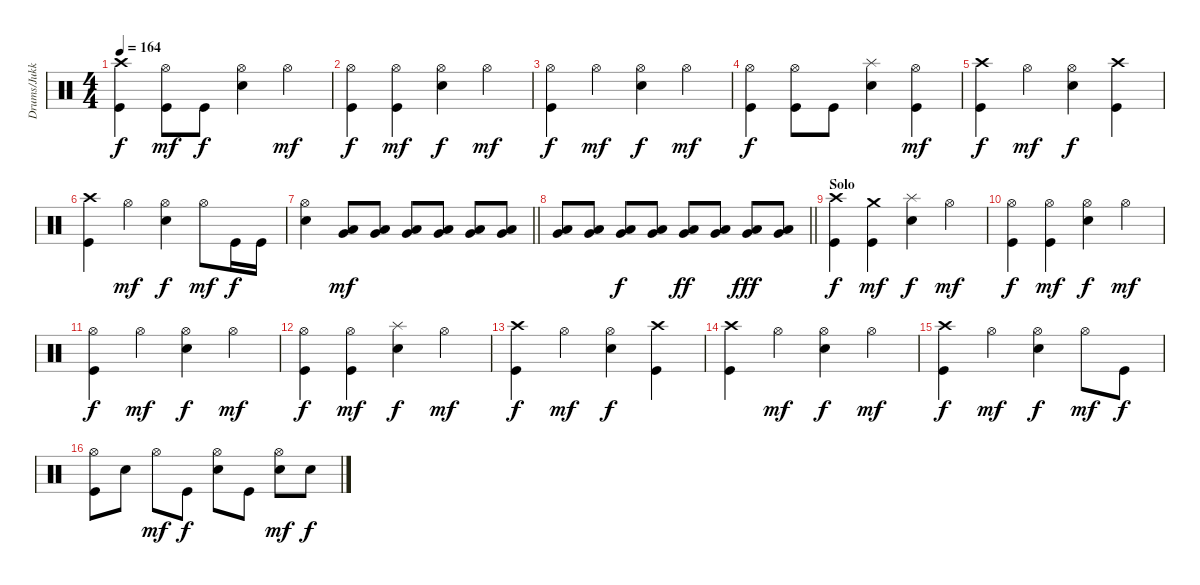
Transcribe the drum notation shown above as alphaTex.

\track ("Drums/Jukka" "Drums/Jukk") {instrument percussion}
\staff {score}
\articulation defaults
\ts (4 4)
\tempo 164
\clef neutral
\ks c
("Crash high (hit)" "Kick (hit)").4{dy f} ("Hi-Hat (open)" "Kick (hit)").8{dy mf} "Kick (hit)".8{dy f} ("Hi-Hat (open)" "Electric Snare (hit)").4 "Hi-Hat (open)".4{dy mf} |
("Hi-Hat (open)" "Kick (hit)").4{dy f} ("Hi-Hat (open)" "Kick (hit)").4{dy mf} ("Hi-Hat (open)" "Electric Snare (hit)").4{dy f} "Hi-Hat (open)".4{dy mf} |
("Hi-Hat (open)" "Kick (hit)").4{dy f} "Hi-Hat (open)".4{dy mf} ("Hi-Hat (open)" "Electric Snare (hit)").4{dy f} "Hi-Hat (open)".4{dy mf} |
("Hi-Hat (open)" "Kick (hit)").4{dy f} ("Hi-Hat (open)" "Kick (hit)").8 "Kick (hit)".8 ("Splash (hit)" "Electric Snare (hit)").4 ("Hi-Hat (open)" "Kick (hit)").4{dy mf} |
("Crash high (hit)" "Kick (hit)").4{dy f} "Hi-Hat (open)".4{dy mf} ("Hi-Hat (open)" "Electric Snare (hit)").4{dy f} ("Crash high (hit)" "Kick (hit)").4 |
("Crash high (hit)" "Kick (hit)").4 "Hi-Hat (open)".4{dy mf} ("Hi-Hat (open)" "Electric Snare (hit)").4{dy f} "Hi-Hat (open)".8{dy mf} "Kick (hit)".16{dy f} "Kick (hit)".16 |
\barLineRight lightlight
("Hi-Hat (open)" "Electric Snare (hit)").4 ("Very Low Tom (hit)" "Low Floor Tom (hit)").8{dy mf} ("Very Low Tom (hit)" "Low Floor Tom (hit)").8 ("Very Low Tom (hit)" "Low Floor Tom (hit)").8 ("Very Low Tom (hit)" "Low Floor Tom (hit)").8 ("Very Low Tom (hit)" "Low Floor Tom (hit)").8 ("Very Low Tom (hit)" "Low Floor Tom (hit)").8 |
\barLineRight lightlight
("Very Low Tom (hit)" "Low Floor Tom (hit)").8 ("Very Low Tom (hit)" "Low Floor Tom (hit)").8 ("Very Low Tom (hit)" "Low Floor Tom (hit)").8{dy f} ("Very Low Tom (hit)" "Low Floor Tom (hit)").8 ("Very Low Tom (hit)" "Low Floor Tom (hit)").8{dy ff} ("Very Low Tom (hit)" "Low Floor Tom (hit)").8 ("Very Low Tom (hit)" "Low Floor Tom (hit)").8{dy fff} ("Very Low Tom (hit)" "Low Floor Tom (hit)").8 |
\section ("" "Solo")
("Crash high (hit)" "Kick (hit)").4{dy f} ("Crash medium (hit)" "Kick (hit)").4{dy mf} ("Splash (hit)" "Electric Snare (hit)").4{dy f} "Hi-Hat (open)".4{dy mf} |
("Hi-Hat (open)" "Kick (hit)").4{dy f} ("Hi-Hat (open)" "Kick (hit)").4{dy mf} ("Hi-Hat (open)" "Electric Snare (hit)").4{dy f} "Hi-Hat (open)".4{dy mf} |
("Hi-Hat (open)" "Kick (hit)").4{dy f} "Hi-Hat (open)".4{dy mf} ("Hi-Hat (open)" "Electric Snare (hit)").4{dy f} "Hi-Hat (open)".4{dy mf} |
("Hi-Hat (open)" "Kick (hit)").4{dy f} ("Hi-Hat (open)" "Kick (hit)").4{dy mf} ("Splash (hit)" "Electric Snare (hit)").4{dy f} "Hi-Hat (open)".4{dy mf} |
("Crash high (hit)" "Kick (hit)").4{dy f} "Hi-Hat (open)".4{dy mf} ("Hi-Hat (open)" "Electric Snare (hit)").4{dy f} ("Crash high (hit)" "Kick (hit)").4 |
("Crash high (hit)" "Kick (hit)").4 "Hi-Hat (open)".4{dy mf} ("Hi-Hat (open)" "Electric Snare (hit)").4{dy f} "Hi-Hat (open)".4{dy mf} |
("Crash high (hit)" "Kick (hit)").4{dy f} "Hi-Hat (open)".4{dy mf} ("Hi-Hat (open)" "Electric Snare (hit)").4{dy f} "Hi-Hat (open)".8{dy mf} "Kick (hit)".8{dy f} |
("Hi-Hat (open)" "Kick (hit)").8 "Electric Snare (hit)".8 "Hi-Hat (open)".8{dy mf} "Kick (hit)".8{dy f} ("Hi-Hat (open)" "Electric Snare (hit)").8 "Kick (hit)".8 ("Hi-Hat (open)" "Electric Snare (hit)").8{dy mf} "Electric Snare (hit)".8{dy f}
